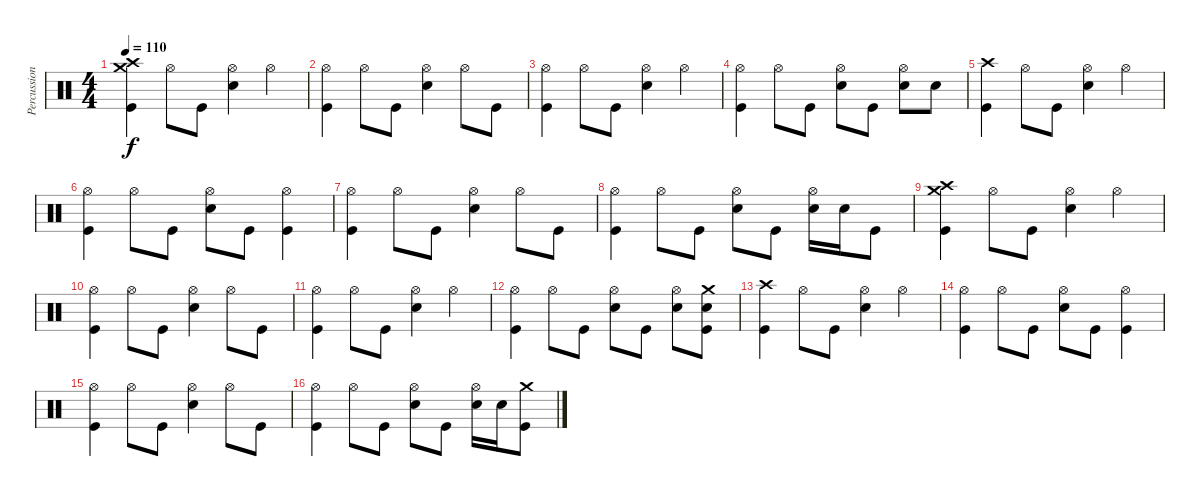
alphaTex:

\track ("Percussion" "Percussion") {instrument percussion}
\staff {score}
\articulation defaults
\ts (4 4)
\tempo 110
\clef neutral
\ks c
("Crash high (hit)" "Crash medium (hit)" "Kick (hit)").4{dy f} "Hi-Hat (open)".8 "Kick (hit)".8 ("Hi-Hat (open)" "Snare (hit) 2").4 "Hi-Hat (open)".4 |
("Hi-Hat (open)" "Kick (hit)").4 "Hi-Hat (open)".8 "Kick (hit)".8 ("Hi-Hat (open)" "Snare (hit) 2").4 "Hi-Hat (open)".8 "Kick (hit)".8 |
("Hi-Hat (open)" "Kick (hit)").4 "Hi-Hat (open)".8 "Kick (hit)".8 ("Hi-Hat (open)" "Snare (hit) 2").4 "Hi-Hat (open)".4 |
("Hi-Hat (open)" "Kick (hit)").4 "Hi-Hat (open)".8 "Kick (hit)".8 ("Hi-Hat (open)" "Snare (hit) 2").8 "Kick (hit)".8 ("Hi-Hat (open)" "Snare (hit) 2").8 "Snare (hit) 2".8 |
("Crash high (hit)" "Kick (hit)").4 "Hi-Hat (open)".8 "Kick (hit)".8 ("Hi-Hat (open)" "Snare (hit) 2").4 "Hi-Hat (open)".4 |
("Hi-Hat (open)" "Kick (hit)").4 "Hi-Hat (open)".8 "Kick (hit)".8 ("Hi-Hat (open)" "Snare (hit) 2").8 "Kick (hit)".8 ("Hi-Hat (open)" "Kick (hit)").4 |
("Hi-Hat (open)" "Kick (hit)").4 "Hi-Hat (open)".8 "Kick (hit)".8 ("Hi-Hat (open)" "Snare (hit) 2").4 "Hi-Hat (open)".8 "Kick (hit)".8 |
("Hi-Hat (open)" "Kick (hit)").4 "Hi-Hat (open)".8 "Kick (hit)".8 ("Hi-Hat (open)" "Snare (hit) 2").8 "Kick (hit)".8 ("Hi-Hat (open)" "Snare (hit) 2").16 "Snare (hit) 2".16 "Kick (hit)".8 |
("Crash high (hit)" "Crash medium (hit)" "Kick (hit)").4 "Hi-Hat (open)".8 "Kick (hit)".8 ("Hi-Hat (open)" "Snare (hit) 2").4 "Hi-Hat (open)".4 |
("Hi-Hat (open)" "Kick (hit)").4 "Hi-Hat (open)".8 "Kick (hit)".8 ("Hi-Hat (open)" "Snare (hit) 2").4 "Hi-Hat (open)".8 "Kick (hit)".8 |
("Hi-Hat (open)" "Kick (hit)").4 "Hi-Hat (open)".8 "Kick (hit)".8 ("Hi-Hat (open)" "Snare (hit) 2").4 "Hi-Hat (open)".4 |
("Hi-Hat (open)" "Kick (hit)").4 "Hi-Hat (open)".8 "Kick (hit)".8 ("Hi-Hat (open)" "Snare (hit) 2").8 "Kick (hit)".8 ("Hi-Hat (open)" "Snare (hit) 2").8 ("Crash medium (hit)" "Snare (hit) 2" "Kick (hit)").8 |
("Crash high (hit)" "Kick (hit)").4 "Hi-Hat (open)".8 "Kick (hit)".8 ("Hi-Hat (open)" "Snare (hit) 2").4 "Hi-Hat (open)".4 |
("Hi-Hat (open)" "Kick (hit)").4 "Hi-Hat (open)".8 "Kick (hit)".8 ("Hi-Hat (open)" "Snare (hit) 2").8 "Kick (hit)".8 ("Hi-Hat (open)" "Kick (hit)").4 |
("Hi-Hat (open)" "Kick (hit)").4 "Hi-Hat (open)".8 "Kick (hit)".8 ("Hi-Hat (open)" "Snare (hit) 2").4 "Hi-Hat (open)".8 "Kick (hit)".8 |
("Hi-Hat (open)" "Kick (hit)").4 "Hi-Hat (open)".8 "Kick (hit)".8 ("Hi-Hat (open)" "Snare (hit) 2").8 "Kick (hit)".8 ("Hi-Hat (open)" "Snare (hit) 2").16 "Snare (hit) 2".16 ("Crash medium (hit)" "Kick (hit)").8
